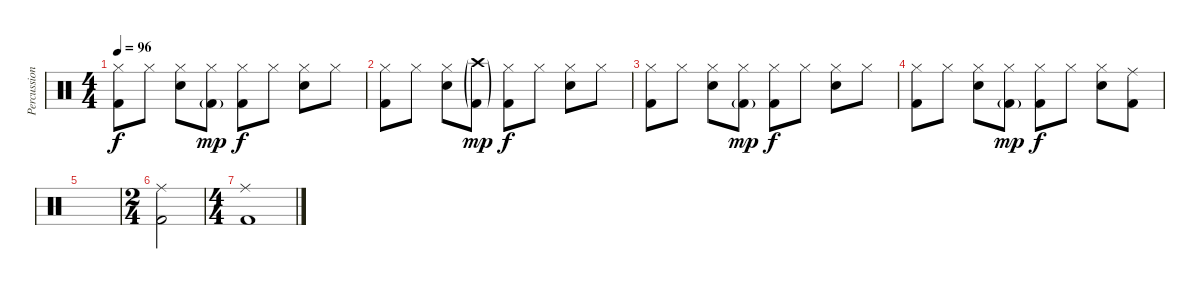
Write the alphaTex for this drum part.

\track ("Percussion" "Percussion") {instrument percussion}
\staff {score}
\articulation defaults
\ts (4 4)
\tempo 96
\clef neutral
\ks c
("Hi-Hat (closed)" "Kick (hit) 2").8{dy f} "Hi-Hat (closed)".8 ("Hi-Hat (closed)" "Snare (hit) 2").8 ("Hi-Hat (closed)" "Kick (hit) 2"{g}).8{dy mp} ("Hi-Hat (closed)" "Kick (hit) 2").8{dy f} "Hi-Hat (closed)".8 ("Hi-Hat (closed)" "Snare (hit) 2").8 "Hi-Hat (closed)".8 |
("Hi-Hat (closed)" "Kick (hit) 2").8 "Hi-Hat (closed)".8 ("Hi-Hat (closed)" "Snare (hit) 2").8 ("Crash high (hit)"{g} "Kick (hit) 2"{g}).8{dy mp} ("Hi-Hat (closed)" "Kick (hit) 2").8{dy f} "Hi-Hat (closed)".8 ("Hi-Hat (closed)" "Snare (hit) 2").8 "Hi-Hat (closed)".8 |
("Hi-Hat (closed)" "Kick (hit) 2").8 "Hi-Hat (closed)".8 ("Hi-Hat (closed)" "Snare (hit) 2").8 ("Hi-Hat (closed)" "Kick (hit) 2"{g}).8{dy mp} ("Hi-Hat (closed)" "Kick (hit) 2").8{dy f} "Hi-Hat (closed)".8 ("Hi-Hat (closed)" "Snare (hit) 2").8 "Hi-Hat (closed)".8 |
("Hi-Hat (closed)" "Kick (hit) 2").8 "Hi-Hat (closed)".8 ("Hi-Hat (closed)" "Snare (hit) 2").8 ("Hi-Hat (closed)" "Kick (hit) 2"{g}).8{dy mp} ("Hi-Hat (closed)" "Kick (hit) 2").8{dy f} "Hi-Hat (closed)".8 ("Hi-Hat (closed)" "Snare (hit) 2").8 ("Ride (middle)" "Kick (hit) 2").8 |
|
\ts (2 4)
("Ride (middle)" "Kick (hit) 2").2 |
\ts (4 4)
("Ride (middle)" "Kick (hit) 2").1
